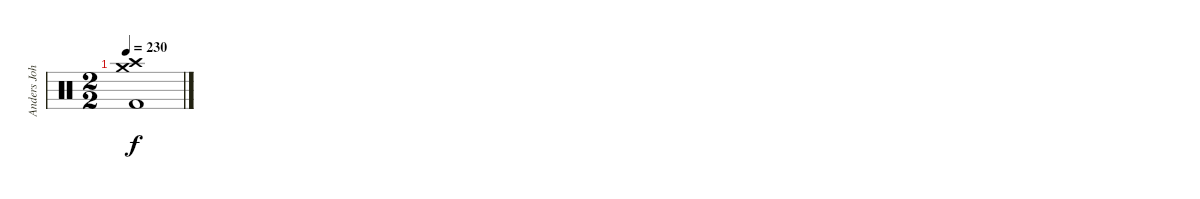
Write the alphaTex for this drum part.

\track ("Anders Johansson" "Anders Joh") {instrument percussion}
\staff {score}
\articulation defaults
\ts (2 2)
\tempo 230
\clef neutral
\ks c
("Crash medium (hit)" "Crash high (hit)" "Kick (hit) 2").1{dy f}
